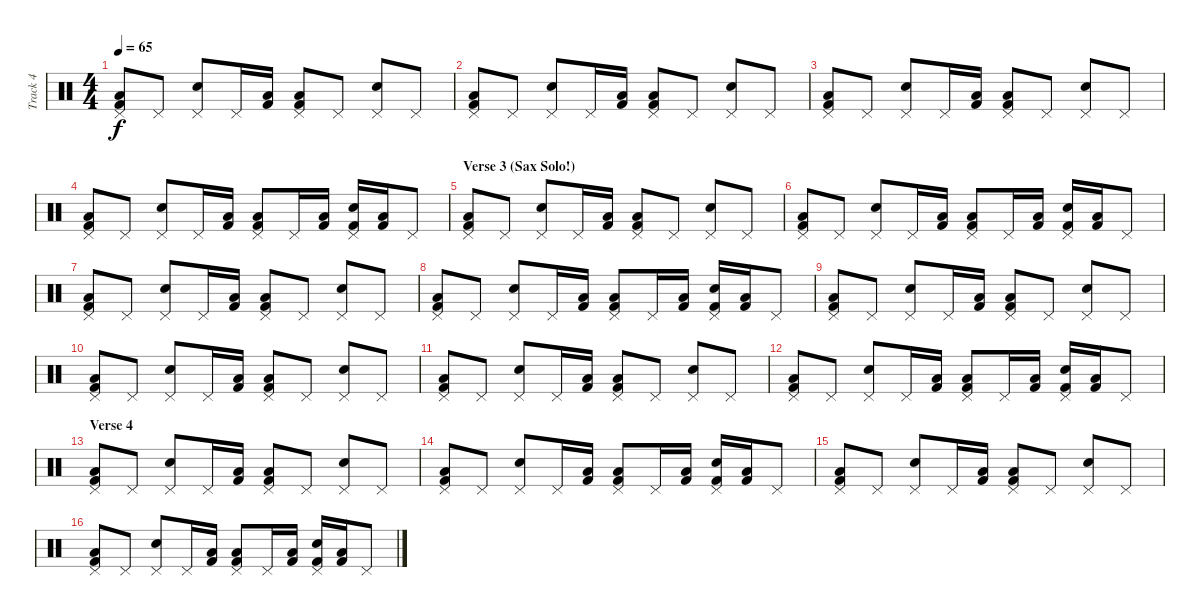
\track ("Track 4" "Track 4") {instrument percussion}
\staff {score}
\articulation defaults
\ts (4 4)
\tempo 65
\clef neutral
\ks c
("Pedal Hi-Hat (hit)" "Low Floor Tom (hit)" "Kick (hit) 2").8{dy f} "Pedal Hi-Hat (hit)".8 ("Pedal Hi-Hat (hit)" "Electric Snare (hit)").8 "Pedal Hi-Hat (hit)".16 ("Low Floor Tom (hit)" "Kick (hit) 2").16 ("Pedal Hi-Hat (hit)" "Low Floor Tom (hit)" "Kick (hit) 2").8 "Pedal Hi-Hat (hit)".8 ("Pedal Hi-Hat (hit)" "Electric Snare (hit)").8 "Pedal Hi-Hat (hit)".8 |
("Pedal Hi-Hat (hit)" "Low Floor Tom (hit)" "Kick (hit) 2").8 "Pedal Hi-Hat (hit)".8 ("Pedal Hi-Hat (hit)" "Electric Snare (hit)").8 "Pedal Hi-Hat (hit)".16 ("Low Floor Tom (hit)" "Kick (hit) 2").16 ("Pedal Hi-Hat (hit)" "Low Floor Tom (hit)" "Kick (hit) 2").8 "Pedal Hi-Hat (hit)".8 ("Pedal Hi-Hat (hit)" "Electric Snare (hit)").8 "Pedal Hi-Hat (hit)".8 |
("Pedal Hi-Hat (hit)" "Low Floor Tom (hit)" "Kick (hit) 2").8 "Pedal Hi-Hat (hit)".8 ("Pedal Hi-Hat (hit)" "Electric Snare (hit)").8 "Pedal Hi-Hat (hit)".16 ("Low Floor Tom (hit)" "Kick (hit) 2").16 ("Pedal Hi-Hat (hit)" "Low Floor Tom (hit)" "Kick (hit) 2").8 "Pedal Hi-Hat (hit)".8 ("Pedal Hi-Hat (hit)" "Electric Snare (hit)").8 "Pedal Hi-Hat (hit)".8 |
("Pedal Hi-Hat (hit)" "Low Floor Tom (hit)" "Kick (hit) 2").8 "Pedal Hi-Hat (hit)".8 ("Pedal Hi-Hat (hit)" "Electric Snare (hit)").8 "Pedal Hi-Hat (hit)".16 ("Low Floor Tom (hit)" "Kick (hit) 2").16 ("Pedal Hi-Hat (hit)" "Low Floor Tom (hit)" "Kick (hit) 2").8 "Pedal Hi-Hat (hit)".16 ("Low Floor Tom (hit)" "Kick (hit) 2").16 ("Pedal Hi-Hat (hit)" "Electric Snare (hit)" "Kick (hit) 2").16 ("Low Floor Tom (hit)" "Kick (hit) 2").16 "Pedal Hi-Hat (hit)".8 |
\section ("" "Verse 3 (Sax Solo!)")
("Pedal Hi-Hat (hit)" "Low Floor Tom (hit)" "Kick (hit) 2").8 "Pedal Hi-Hat (hit)".8 ("Pedal Hi-Hat (hit)" "Electric Snare (hit)").8 "Pedal Hi-Hat (hit)".16 ("Low Floor Tom (hit)" "Kick (hit) 2").16 ("Pedal Hi-Hat (hit)" "Low Floor Tom (hit)" "Kick (hit) 2").8 "Pedal Hi-Hat (hit)".8 ("Pedal Hi-Hat (hit)" "Electric Snare (hit)").8 "Pedal Hi-Hat (hit)".8 |
("Pedal Hi-Hat (hit)" "Low Floor Tom (hit)" "Kick (hit) 2").8 "Pedal Hi-Hat (hit)".8 ("Pedal Hi-Hat (hit)" "Electric Snare (hit)").8 "Pedal Hi-Hat (hit)".16 ("Low Floor Tom (hit)" "Kick (hit) 2").16 ("Pedal Hi-Hat (hit)" "Low Floor Tom (hit)" "Kick (hit) 2").8 "Pedal Hi-Hat (hit)".16 ("Low Floor Tom (hit)" "Kick (hit) 2").16 ("Pedal Hi-Hat (hit)" "Electric Snare (hit)" "Kick (hit) 2").16 ("Low Floor Tom (hit)" "Kick (hit) 2").16 "Pedal Hi-Hat (hit)".8 |
("Pedal Hi-Hat (hit)" "Low Floor Tom (hit)" "Kick (hit) 2").8 "Pedal Hi-Hat (hit)".8 ("Pedal Hi-Hat (hit)" "Electric Snare (hit)").8 "Pedal Hi-Hat (hit)".16 ("Low Floor Tom (hit)" "Kick (hit) 2").16 ("Pedal Hi-Hat (hit)" "Low Floor Tom (hit)" "Kick (hit) 2").8 "Pedal Hi-Hat (hit)".8 ("Pedal Hi-Hat (hit)" "Electric Snare (hit)").8 "Pedal Hi-Hat (hit)".8 |
("Pedal Hi-Hat (hit)" "Low Floor Tom (hit)" "Kick (hit) 2").8 "Pedal Hi-Hat (hit)".8 ("Pedal Hi-Hat (hit)" "Electric Snare (hit)").8 "Pedal Hi-Hat (hit)".16 ("Low Floor Tom (hit)" "Kick (hit) 2").16 ("Pedal Hi-Hat (hit)" "Low Floor Tom (hit)" "Kick (hit) 2").8 "Pedal Hi-Hat (hit)".16 ("Low Floor Tom (hit)" "Kick (hit) 2").16 ("Pedal Hi-Hat (hit)" "Electric Snare (hit)" "Kick (hit) 2").16 ("Low Floor Tom (hit)" "Kick (hit) 2").16 "Pedal Hi-Hat (hit)".8 |
("Pedal Hi-Hat (hit)" "Low Floor Tom (hit)" "Kick (hit) 2").8 "Pedal Hi-Hat (hit)".8 ("Pedal Hi-Hat (hit)" "Electric Snare (hit)").8 "Pedal Hi-Hat (hit)".16 ("Low Floor Tom (hit)" "Kick (hit) 2").16 ("Pedal Hi-Hat (hit)" "Low Floor Tom (hit)" "Kick (hit) 2").8 "Pedal Hi-Hat (hit)".8 ("Pedal Hi-Hat (hit)" "Electric Snare (hit)").8 "Pedal Hi-Hat (hit)".8 |
("Pedal Hi-Hat (hit)" "Low Floor Tom (hit)" "Kick (hit) 2").8 "Pedal Hi-Hat (hit)".8 ("Pedal Hi-Hat (hit)" "Electric Snare (hit)").8 "Pedal Hi-Hat (hit)".16 ("Low Floor Tom (hit)" "Kick (hit) 2").16 ("Pedal Hi-Hat (hit)" "Low Floor Tom (hit)" "Kick (hit) 2").8 "Pedal Hi-Hat (hit)".8 ("Pedal Hi-Hat (hit)" "Electric Snare (hit)").8 "Pedal Hi-Hat (hit)".8 |
("Pedal Hi-Hat (hit)" "Low Floor Tom (hit)" "Kick (hit) 2").8 "Pedal Hi-Hat (hit)".8 ("Pedal Hi-Hat (hit)" "Electric Snare (hit)").8 "Pedal Hi-Hat (hit)".16 ("Low Floor Tom (hit)" "Kick (hit) 2").16 ("Pedal Hi-Hat (hit)" "Low Floor Tom (hit)" "Kick (hit) 2").8 "Pedal Hi-Hat (hit)".8 ("Pedal Hi-Hat (hit)" "Electric Snare (hit)").8 "Pedal Hi-Hat (hit)".8 |
("Pedal Hi-Hat (hit)" "Low Floor Tom (hit)" "Kick (hit) 2").8 "Pedal Hi-Hat (hit)".8 ("Pedal Hi-Hat (hit)" "Electric Snare (hit)").8 "Pedal Hi-Hat (hit)".16 ("Low Floor Tom (hit)" "Kick (hit) 2").16 ("Pedal Hi-Hat (hit)" "Low Floor Tom (hit)" "Kick (hit) 2").8 "Pedal Hi-Hat (hit)".16 ("Low Floor Tom (hit)" "Kick (hit) 2").16 ("Pedal Hi-Hat (hit)" "Electric Snare (hit)" "Kick (hit) 2").16 ("Low Floor Tom (hit)" "Kick (hit) 2").16 "Pedal Hi-Hat (hit)".8 |
\section ("" "Verse 4")
("Pedal Hi-Hat (hit)" "Low Floor Tom (hit)" "Kick (hit) 2").8 "Pedal Hi-Hat (hit)".8 ("Pedal Hi-Hat (hit)" "Electric Snare (hit)").8 "Pedal Hi-Hat (hit)".16 ("Low Floor Tom (hit)" "Kick (hit) 2").16 ("Pedal Hi-Hat (hit)" "Low Floor Tom (hit)" "Kick (hit) 2").8 "Pedal Hi-Hat (hit)".8 ("Pedal Hi-Hat (hit)" "Electric Snare (hit)").8 "Pedal Hi-Hat (hit)".8 |
("Pedal Hi-Hat (hit)" "Low Floor Tom (hit)" "Kick (hit) 2").8 "Pedal Hi-Hat (hit)".8 ("Pedal Hi-Hat (hit)" "Electric Snare (hit)").8 "Pedal Hi-Hat (hit)".16 ("Low Floor Tom (hit)" "Kick (hit) 2").16 ("Pedal Hi-Hat (hit)" "Low Floor Tom (hit)" "Kick (hit) 2").8 "Pedal Hi-Hat (hit)".16 ("Low Floor Tom (hit)" "Kick (hit) 2").16 ("Pedal Hi-Hat (hit)" "Electric Snare (hit)" "Kick (hit) 2").16 ("Low Floor Tom (hit)" "Kick (hit) 2").16 "Pedal Hi-Hat (hit)".8 |
("Pedal Hi-Hat (hit)" "Low Floor Tom (hit)" "Kick (hit) 2").8 "Pedal Hi-Hat (hit)".8 ("Pedal Hi-Hat (hit)" "Electric Snare (hit)").8 "Pedal Hi-Hat (hit)".16 ("Low Floor Tom (hit)" "Kick (hit) 2").16 ("Pedal Hi-Hat (hit)" "Low Floor Tom (hit)" "Kick (hit) 2").8 "Pedal Hi-Hat (hit)".8 ("Pedal Hi-Hat (hit)" "Electric Snare (hit)").8 "Pedal Hi-Hat (hit)".8 |
("Pedal Hi-Hat (hit)" "Low Floor Tom (hit)" "Kick (hit) 2").8 "Pedal Hi-Hat (hit)".8 ("Pedal Hi-Hat (hit)" "Electric Snare (hit)").8 "Pedal Hi-Hat (hit)".16 ("Low Floor Tom (hit)" "Kick (hit) 2").16 ("Pedal Hi-Hat (hit)" "Low Floor Tom (hit)" "Kick (hit) 2").8 "Pedal Hi-Hat (hit)".16 ("Low Floor Tom (hit)" "Kick (hit) 2").16 ("Pedal Hi-Hat (hit)" "Electric Snare (hit)" "Kick (hit) 2").16 ("Low Floor Tom (hit)" "Kick (hit) 2").16 "Pedal Hi-Hat (hit)".8
